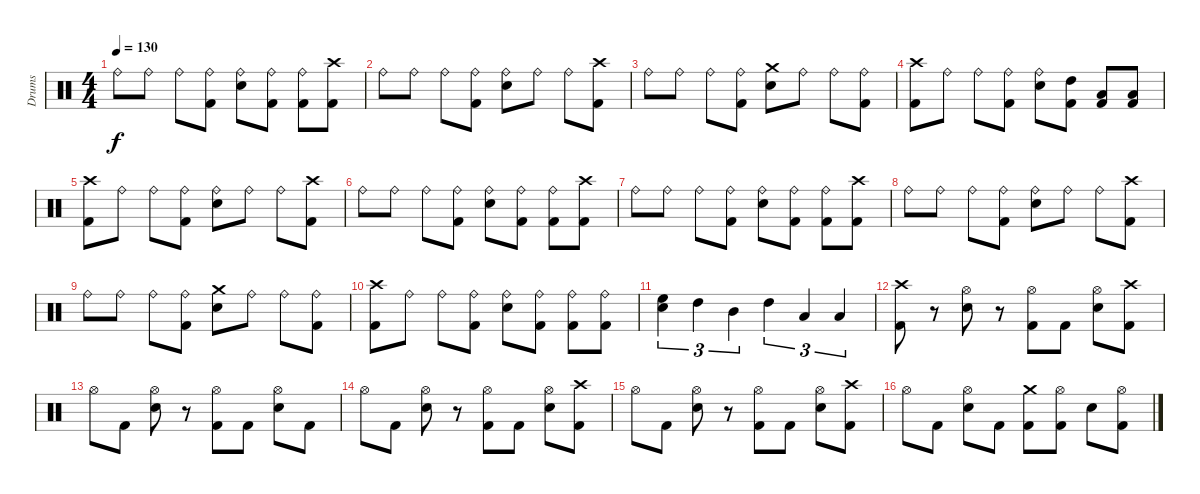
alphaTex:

\track ("Drums" "Drums") {instrument percussion}
\staff {score}
\articulation defaults
\ts (4 4)
\tempo 130
\clef neutral
\ks c "Ride (bell)".8{dy f} "Ride (bell)".8 "Ride (bell)".8
("Ride (bell)" "Kick (hit) 2").8 ("Ride (bell)" "Electric Snare (hit)").8 ("Ride (bell)" "Kick (hit) 2").8 ("Ride (bell)" "Kick (hit) 2").8 ("Crash high (hit)" "Kick (hit) 2").8 |
"Ride (bell)".8 "Ride (bell)".8 "Ride (bell)".8 ("Ride (bell)" "Kick (hit) 2").8 ("Ride (bell)" "Electric Snare (hit)").8 "Ride (bell)".8 "Ride (bell)".8 ("Crash high (hit)" "Kick (hit) 2").8 |
"Ride (bell)".8 "Ride (bell)".8 "Ride (bell)".8 ("Ride (bell)" "Kick (hit) 2").8 ("Crash medium (hit)" "Electric Snare (hit)").8 "Ride (bell)".8 "Ride (bell)".8 ("Ride (bell)" "Kick (hit) 2").8 |
("Crash high (hit)" "Kick (hit) 2").8 "Ride (bell)".8 "Ride (bell)".8 ("Ride (bell)" "Kick (hit) 2").8 ("Ride (bell)" "Electric Snare (hit)").8 ("High Tom (hit)" "Kick (hit) 2").8 ("Low Tom (hit)" "Kick (hit) 2").8 ("Low Floor Tom (hit)" "Kick (hit) 2").8 |
("Crash high (hit)" "Kick (hit) 2").8 "Ride (bell)".8 "Ride (bell)".8 ("Ride (bell)" "Kick (hit) 2").8 ("Ride (bell)" "Electric Snare (hit)").8 "Ride (bell)".8 "Ride (bell)".8 ("Crash high (hit)" "Kick (hit) 2").8 |
"Ride (bell)".8 "Ride (bell)".8 "Ride (bell)".8 ("Ride (bell)" "Kick (hit) 2").8 ("Ride (bell)" "Electric Snare (hit)").8 ("Ride (bell)" "Kick (hit) 2").8 ("Ride (bell)" "Kick (hit) 2").8 ("Crash high (hit)" "Kick (hit) 2").8 |
"Ride (bell)".8 "Ride (bell)".8 "Ride (bell)".8 ("Ride (bell)" "Kick (hit) 2").8 ("Ride (bell)" "Electric Snare (hit)").8 ("Ride (bell)" "Kick (hit) 2").8 ("Ride (bell)" "Kick (hit) 2").8 ("Crash high (hit)" "Kick (hit) 2").8 |
"Ride (bell)".8 "Ride (bell)".8 "Ride (bell)".8 ("Ride (bell)" "Kick (hit) 2").8 ("Ride (bell)" "Electric Snare (hit)").8 "Ride (bell)".8 "Ride (bell)".8 ("Crash high (hit)" "Kick (hit) 2").8 |
"Ride (bell)".8 "Ride (bell)".8 "Ride (bell)".8 ("Ride (bell)" "Kick (hit) 2").8 ("Crash medium (hit)" "Electric Snare (hit)").8 "Ride (bell)".8 "Ride (bell)".8 ("Ride (bell)" "Kick (hit) 2").8 |
("Crash high (hit)" "Kick (hit) 2").8 "Ride (bell)".8 "Ride (bell)".8 ("Ride (bell)" "Kick (hit) 2").8 ("Ride (bell)" "Electric Snare (hit)").8 ("Ride (bell)" "Kick (hit) 2").8 ("Ride (bell)" "Kick (hit) 2").8 ("Ride (bell)" "Kick (hit) 2").8 |
("High Floor Tom (hit)" "Electric Snare (hit)").4{tu (3 2)} "High Tom (hit)".4{tu (3 2)} "Mid Tom (hit)".4{tu (3 2)} "High Tom (hit)".4{tu (3 2)} "Low Tom (hit)".4{tu (3 2)} "Low Floor Tom (hit)".4{tu (3 2)} |
("Crash high (hit)" "Kick (hit) 2").8 r.8 ("Hi-Hat (open)" "Electric Snare (hit)").8 r.8 ("Hi-Hat (open)" "Kick (hit) 2").8 "Kick (hit) 2".8 ("Hi-Hat (open)" "Electric Snare (hit)").8 ("Crash high (hit)" "Kick (hit) 2").8 |
"Hi-Hat (open)".8 "Kick (hit) 2".8 ("Hi-Hat (open)" "Electric Snare (hit)").8 r.8 ("Hi-Hat (open)" "Kick (hit) 2").8 "Kick (hit) 2".8 ("Hi-Hat (open)" "Electric Snare (hit)").8 "Kick (hit) 2".8 |
"Hi-Hat (open)".8 "Kick (hit) 2".8 ("Hi-Hat (open)" "Electric Snare (hit)").8 r.8 ("Hi-Hat (open)" "Kick (hit) 2").8 "Kick (hit) 2".8 ("Hi-Hat (open)" "Electric Snare (hit)").8 ("Crash high (hit)" "Kick (hit) 2").8 |
"Hi-Hat (open)".8 "Kick (hit) 2".8 ("Hi-Hat (open)" "Electric Snare (hit)").8 r.8 ("Hi-Hat (open)" "Kick (hit) 2").8 "Kick (hit) 2".8 ("Hi-Hat (open)" "Electric Snare (hit)").8 ("Crash high (hit)" "Kick (hit) 2").8 |
"Hi-Hat (open)".8 "Kick (hit) 2".8 ("Hi-Hat (open)" "Electric Snare (hit)").8 "Kick (hit) 2".8 ("Crash medium (hit)" "Kick (hit) 2").8 ("Hi-Hat (open)" "Kick (hit) 2").8 "Electric Snare (hit)".8 ("Hi-Hat (open)" "Kick (hit) 2").8
